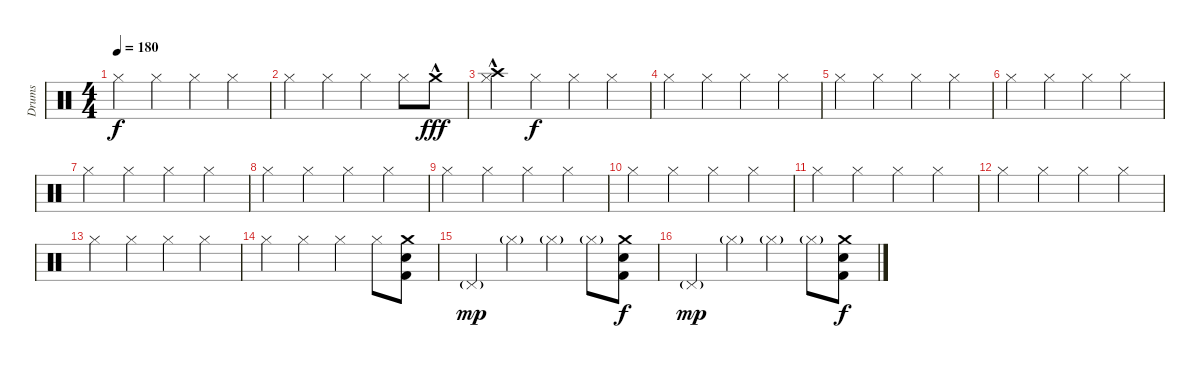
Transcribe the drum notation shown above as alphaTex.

\track ("Drums" "Drums") {instrument percussion}
\staff {score}
\articulation defaults
\ts (4 4)
\tempo 180
\clef neutral
\ks c "Hi-Hat (closed)".4{dy f} "Hi-Hat (closed)".4 "Hi-Hat (closed)".4 "Hi-Hat (closed)".4
|
"Hi-Hat (closed)".4 "Hi-Hat (closed)".4 "Hi-Hat (closed)".4 "Hi-Hat (closed)".8 "Crash medium (hit)"{hac}.8{dy fff} |
("Crash high (hit)"{hac} "Hi-Hat (closed)").4 "Hi-Hat (closed)".4{dy f} "Hi-Hat (closed)".4 "Hi-Hat (closed)".4 |
"Hi-Hat (closed)".4 "Hi-Hat (closed)".4 "Hi-Hat (closed)".4 "Hi-Hat (closed)".4 |
"Hi-Hat (closed)".4 "Hi-Hat (closed)".4 "Hi-Hat (closed)".4 "Hi-Hat (closed)".4 |
"Hi-Hat (closed)".4 "Hi-Hat (closed)".4 "Hi-Hat (closed)".4 "Hi-Hat (closed)".4 |
"Hi-Hat (closed)".4 "Hi-Hat (closed)".4 "Hi-Hat (closed)".4 "Hi-Hat (closed)".4 |
"Hi-Hat (closed)".4 "Hi-Hat (closed)".4 "Hi-Hat (closed)".4 "Hi-Hat (closed)".4 |
"Hi-Hat (closed)".4 "Hi-Hat (closed)".4 "Hi-Hat (closed)".4 "Hi-Hat (closed)".4 |
"Hi-Hat (closed)".4 "Hi-Hat (closed)".4 "Hi-Hat (closed)".4 "Hi-Hat (closed)".4 |
"Hi-Hat (closed)".4 "Hi-Hat (closed)".4 "Hi-Hat (closed)".4 "Hi-Hat (closed)".4 |
"Hi-Hat (closed)".4 "Hi-Hat (closed)".4 "Hi-Hat (closed)".4 "Hi-Hat (closed)".4 |
"Hi-Hat (closed)".4 "Hi-Hat (closed)".4 "Hi-Hat (closed)".4 "Hi-Hat (closed)".4 |
"Hi-Hat (closed)".4 "Hi-Hat (closed)".4 "Hi-Hat (closed)".4 "Hi-Hat (closed)".8 ("Crash medium (hit)" "Electric Snare (hit)" "Kick (hit) 2").8 |
"Pedal Hi-Hat (hit)"{g}.4{dy mp} "Hi-Hat (closed)"{g}.4 "Hi-Hat (closed)"{g}.4 "Hi-Hat (closed)"{g}.8 ("Crash medium (hit)" "Electric Snare (hit)" "Kick (hit) 2").8{dy f} |
"Pedal Hi-Hat (hit)"{g}.4{dy mp} "Hi-Hat (closed)"{g}.4 "Hi-Hat (closed)"{g}.4 "Hi-Hat (closed)"{g}.8 ("Crash medium (hit)" "Electric Snare (hit)" "Kick (hit) 2").8{dy f}
